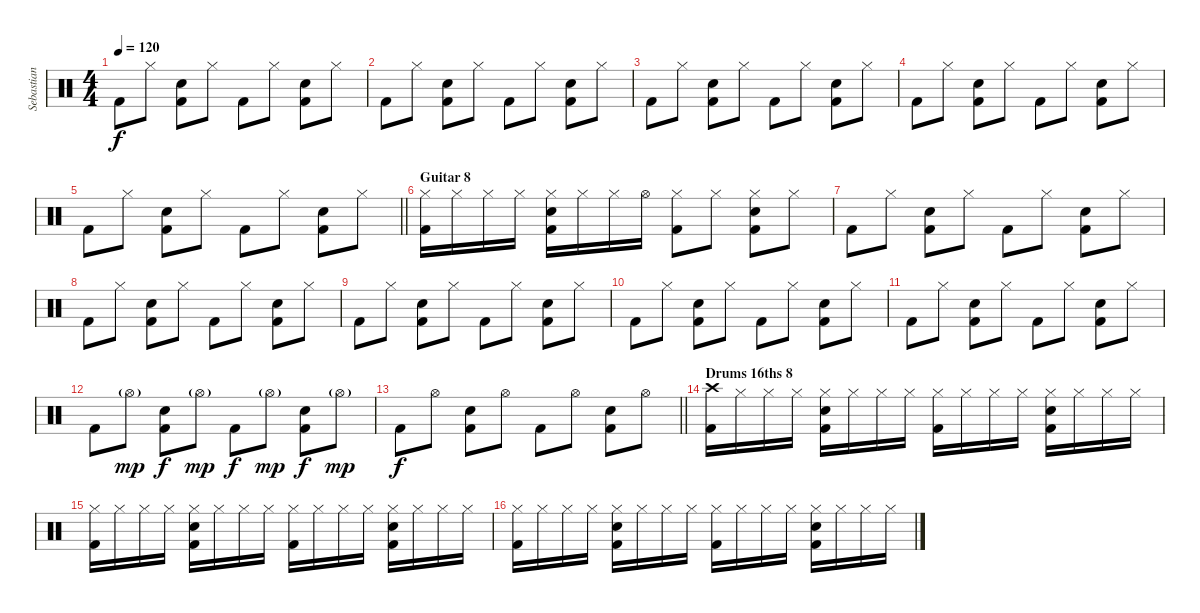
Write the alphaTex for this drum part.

\track ("Sebastian (Drums)" "Sebastian ") {instrument percussion}
\staff {score}
\articulation defaults
\ts (4 4)
\tempo 120
\clef neutral
\ks c "Kick (hit) 2".8{dy f} "Hi-Hat (closed)".8
("Electric Snare (hit)" "Kick (hit) 2").8 "Hi-Hat (closed)".8 "Kick (hit) 2".8 "Hi-Hat (closed)".8 ("Electric Snare (hit)" "Kick (hit) 2").8 "Hi-Hat (closed)".8 |
"Kick (hit) 2".8 "Hi-Hat (closed)".8 ("Electric Snare (hit)" "Kick (hit) 2").8 "Hi-Hat (closed)".8 "Kick (hit) 2".8 "Hi-Hat (closed)".8 ("Electric Snare (hit)" "Kick (hit) 2").8 "Hi-Hat (closed)".8 |
"Kick (hit) 2".8 "Hi-Hat (closed)".8 ("Electric Snare (hit)" "Kick (hit) 2").8 "Hi-Hat (closed)".8 "Kick (hit) 2".8 "Hi-Hat (closed)".8 ("Electric Snare (hit)" "Kick (hit) 2").8 "Hi-Hat (closed)".8 |
"Kick (hit) 2".8 "Hi-Hat (closed)".8 ("Electric Snare (hit)" "Kick (hit) 2").8 "Hi-Hat (closed)".8 "Kick (hit) 2".8 "Hi-Hat (closed)".8 ("Electric Snare (hit)" "Kick (hit) 2").8 "Hi-Hat (closed)".8 |
\barLineRight lightlight "Kick (hit) 2".8 "Hi-Hat (closed)".8
("Electric Snare (hit)" "Kick (hit) 2").8 "Hi-Hat (closed)".8 "Kick (hit) 2".8 "Hi-Hat (closed)".8 ("Electric Snare (hit)" "Kick (hit) 2").8 "Hi-Hat (closed)".8 |
\section ("" "Guitar 8")
("Hi-Hat (closed)" "Kick (hit) 2").16 "Hi-Hat (closed)".16 "Hi-Hat (closed)".16 "Hi-Hat (closed)".16 ("Hi-Hat (closed)" "Electric Snare (hit)" "Kick (hit) 2").16 "Hi-Hat (closed)".16 "Hi-Hat (closed)".16 "Hi-Hat (open)".16 ("Hi-Hat (closed)" "Kick (hit) 2").8 "Hi-Hat (closed)".8 ("Hi-Hat (closed)" "Electric Snare (hit)" "Kick (hit) 2").8 "Hi-Hat (closed)".8 |
"Kick (hit) 2".8 "Hi-Hat (closed)".8 ("Electric Snare (hit)" "Kick (hit) 2").8 "Hi-Hat (closed)".8 "Kick (hit) 2".8 "Hi-Hat (closed)".8 ("Electric Snare (hit)" "Kick (hit) 2").8 "Hi-Hat (closed)".8 |
"Kick (hit) 2".8 "Hi-Hat (closed)".8 ("Electric Snare (hit)" "Kick (hit) 2").8 "Hi-Hat (closed)".8 "Kick (hit) 2".8 "Hi-Hat (closed)".8 ("Electric Snare (hit)" "Kick (hit) 2").8 "Hi-Hat (closed)".8 |
"Kick (hit) 2".8 "Hi-Hat (closed)".8 ("Electric Snare (hit)" "Kick (hit) 2").8 "Hi-Hat (closed)".8 "Kick (hit) 2".8 "Hi-Hat (closed)".8 ("Electric Snare (hit)" "Kick (hit) 2").8 "Hi-Hat (closed)".8 |
"Kick (hit) 2".8 "Hi-Hat (closed)".8 ("Electric Snare (hit)" "Kick (hit) 2").8 "Hi-Hat (closed)".8 "Kick (hit) 2".8 "Hi-Hat (closed)".8 ("Electric Snare (hit)" "Kick (hit) 2").8 "Hi-Hat (closed)".8 |
"Kick (hit) 2".8 "Hi-Hat (closed)".8 ("Electric Snare (hit)" "Kick (hit) 2").8 "Hi-Hat (closed)".8 "Kick (hit) 2".8 "Hi-Hat (closed)".8 ("Electric Snare (hit)" "Kick (hit) 2").8 "Hi-Hat (closed)".8 |
"Kick (hit) 2".8 "Hi-Hat (open)"{g}.8{dy mp} ("Electric Snare (hit)" "Kick (hit) 2").8{dy f} "Hi-Hat (open)"{g}.8{dy mp} "Kick (hit) 2".8{dy f} "Hi-Hat (open)"{g}.8{dy mp} ("Electric Snare (hit)" "Kick (hit) 2").8{dy f} "Hi-Hat (open)"{g}.8{dy mp} |
\barLineRight lightlight "Kick (hit) 2".8{dy f} "Hi-Hat (open)".8
("Electric Snare (hit)" "Kick (hit) 2").8 "Hi-Hat (open)".8 "Kick (hit) 2".8 "Hi-Hat (open)".8 ("Electric Snare (hit)" "Kick (hit) 2").8 "Hi-Hat (open)".8 |
\section ("" "Drums 16ths 8")
("Crash high (hit)" "Kick (hit) 2").16 "Hi-Hat (closed)".16 "Hi-Hat (closed)".16 "Hi-Hat (closed)".16 ("Hi-Hat (closed)" "Electric Snare (hit)" "Kick (hit) 2").16 "Hi-Hat (closed)".16 "Hi-Hat (closed)".16 "Hi-Hat (closed)".16 ("Hi-Hat (closed)" "Kick (hit) 2").16 "Hi-Hat (closed)".16 "Hi-Hat (closed)".16 "Hi-Hat (closed)".16 ("Hi-Hat (closed)" "Electric Snare (hit)" "Kick (hit) 2").16 "Hi-Hat (closed)".16 "Hi-Hat (closed)".16 "Hi-Hat (closed)".16 |
("Hi-Hat (closed)" "Kick (hit) 2").16 "Hi-Hat (closed)".16 "Hi-Hat (closed)".16 "Hi-Hat (closed)".16 ("Hi-Hat (closed)" "Electric Snare (hit)" "Kick (hit) 2").16 "Hi-Hat (closed)".16 "Hi-Hat (closed)".16 "Hi-Hat (closed)".16 ("Hi-Hat (closed)" "Kick (hit) 2").16 "Hi-Hat (closed)".16 "Hi-Hat (closed)".16 "Hi-Hat (closed)".16 ("Hi-Hat (closed)" "Electric Snare (hit)" "Kick (hit) 2").16 "Hi-Hat (closed)".16 "Hi-Hat (closed)".16 "Hi-Hat (closed)".16 |
("Hi-Hat (closed)" "Kick (hit) 2").16 "Hi-Hat (closed)".16 "Hi-Hat (closed)".16 "Hi-Hat (closed)".16 ("Hi-Hat (closed)" "Electric Snare (hit)" "Kick (hit) 2").16 "Hi-Hat (closed)".16 "Hi-Hat (closed)".16 "Hi-Hat (closed)".16 ("Hi-Hat (closed)" "Kick (hit) 2").16 "Hi-Hat (closed)".16 "Hi-Hat (closed)".16 "Hi-Hat (closed)".16 ("Hi-Hat (closed)" "Electric Snare (hit)" "Kick (hit) 2").16 "Hi-Hat (closed)".16 "Hi-Hat (closed)".16 "Hi-Hat (closed)".16
